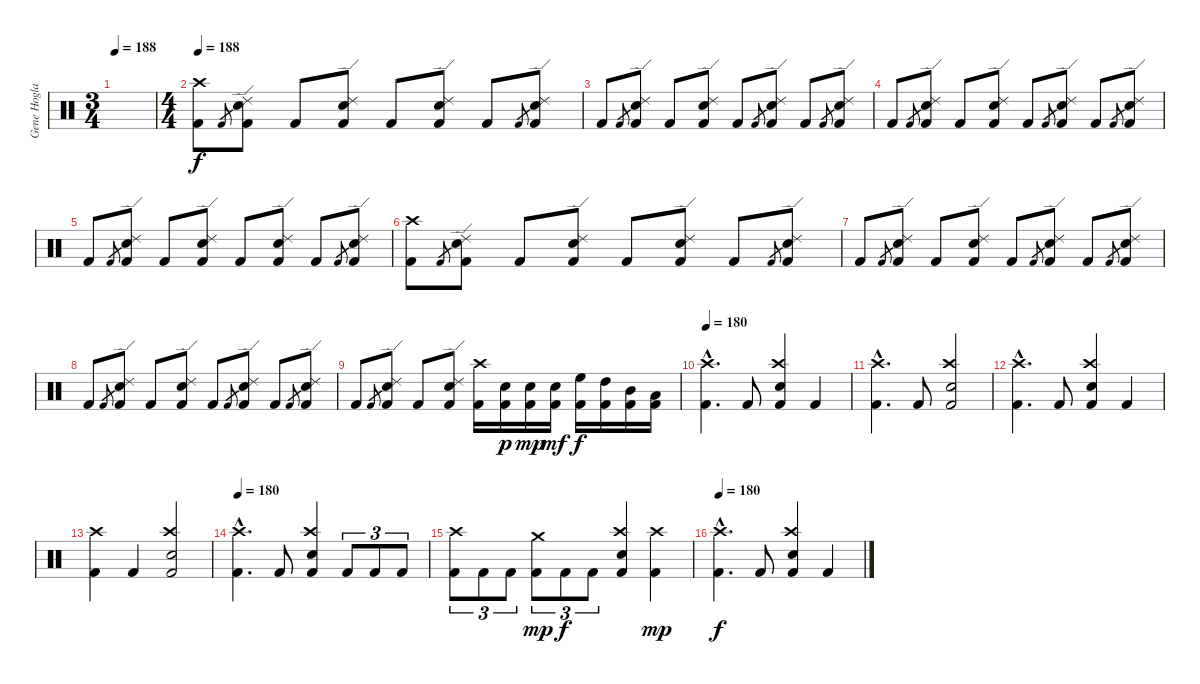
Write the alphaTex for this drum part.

\track ("Gene Hoglan" "Gene Hogla") {instrument percussion}
\staff {score}
\articulation defaults
\ts (3 4)
\tempo 188
\clef neutral
\ks c
|
\ts (4 4)
\tempo 188
("Kick (hit) 2" "Crash high (hit)").8 "Kick (hit) 2".8{gr} ("Kick (hit) 2" "Electric Snare (hit)" "Ride (edge) 2").8 "Kick (hit) 2".8 ("Kick (hit) 2" "Electric Snare (hit)" "Ride (edge) 2").8 "Kick (hit) 2".8 ("Kick (hit) 2" "Electric Snare (hit)" "Ride (edge) 2").8 "Kick (hit) 2".8 "Kick (hit) 2".8{gr} ("Kick (hit) 2" "Electric Snare (hit)" "Ride (edge) 2").8 |
"Kick (hit) 2".8 "Kick (hit) 2".8{gr} ("Kick (hit) 2" "Electric Snare (hit)" "Ride (edge) 2").8 "Kick (hit) 2".8 ("Kick (hit) 2" "Electric Snare (hit)" "Ride (edge) 2").8 "Kick (hit) 2".8 "Kick (hit) 2".8{gr} ("Kick (hit) 2" "Electric Snare (hit)" "Ride (edge) 2").8 "Kick (hit) 2".8 "Kick (hit) 2".8{gr} ("Kick (hit) 2" "Electric Snare (hit)" "Ride (edge) 2").8 |
"Kick (hit) 2".8 "Kick (hit) 2".8{gr} ("Kick (hit) 2" "Electric Snare (hit)" "Ride (edge) 2").8 "Kick (hit) 2".8 ("Kick (hit) 2" "Electric Snare (hit)" "Ride (edge) 2").8 "Kick (hit) 2".8 "Kick (hit) 2".8{gr} ("Kick (hit) 2" "Electric Snare (hit)" "Ride (edge) 2").8 "Kick (hit) 2".8 "Kick (hit) 2".8{gr} ("Kick (hit) 2" "Electric Snare (hit)" "Ride (edge) 2").8 |
"Kick (hit) 2".8 "Kick (hit) 2".8{gr} ("Kick (hit) 2" "Electric Snare (hit)" "Ride (edge) 2").8 "Kick (hit) 2".8 ("Kick (hit) 2" "Electric Snare (hit)" "Ride (edge) 2").8 "Kick (hit) 2".8 ("Kick (hit) 2" "Electric Snare (hit)" "Ride (edge) 2").8 "Kick (hit) 2".8 "Kick (hit) 2".8{gr} ("Kick (hit) 2" "Electric Snare (hit)" "Ride (edge) 2").8 |
("Kick (hit) 2" "Crash high (hit)").8 "Kick (hit) 2".8{gr} ("Kick (hit) 2" "Electric Snare (hit)" "Ride (edge) 2").8 "Kick (hit) 2".8 ("Kick (hit) 2" "Electric Snare (hit)" "Ride (edge) 2").8 "Kick (hit) 2".8 ("Kick (hit) 2" "Electric Snare (hit)" "Ride (edge) 2").8 "Kick (hit) 2".8 "Kick (hit) 2".8{gr} ("Kick (hit) 2" "Electric Snare (hit)" "Ride (edge) 2").8 |
"Kick (hit) 2".8 "Kick (hit) 2".8{gr} ("Kick (hit) 2" "Electric Snare (hit)" "Ride (edge) 2").8 "Kick (hit) 2".8 ("Kick (hit) 2" "Electric Snare (hit)" "Ride (edge) 2").8 "Kick (hit) 2".8 "Kick (hit) 2".8{gr} ("Kick (hit) 2" "Electric Snare (hit)" "Ride (edge) 2").8 "Kick (hit) 2".8 "Kick (hit) 2".8{gr} ("Kick (hit) 2" "Electric Snare (hit)" "Ride (edge) 2").8 |
"Kick (hit) 2".8 "Kick (hit) 2".8{gr} ("Kick (hit) 2" "Electric Snare (hit)" "Ride (edge) 2").8 "Kick (hit) 2".8 ("Kick (hit) 2" "Electric Snare (hit)" "Ride (edge) 2").8 "Kick (hit) 2".8 "Kick (hit) 2".8{gr} ("Kick (hit) 2" "Electric Snare (hit)" "Ride (edge) 2").8 "Kick (hit) 2".8 "Kick (hit) 2".8{gr} ("Kick (hit) 2" "Electric Snare (hit)" "Ride (edge) 2").8 |
"Kick (hit) 2".8 "Kick (hit) 2".8{gr} ("Kick (hit) 2" "Electric Snare (hit)" "Ride (edge) 2").8 "Kick (hit) 2".8 ("Kick (hit) 2" "Electric Snare (hit)" "Ride (edge) 2").8 ("Kick (hit) 2" "Crash high (hit)").16 ("Kick (hit) 2" "Electric Snare (hit)").16{dy p} ("Kick (hit) 2" "Electric Snare (hit)").16{dy mp} ("Kick (hit) 2" "Electric Snare (hit)").16{dy mf} ("Kick (hit) 2" "High Floor Tom (hit)").16{dy f} ("Kick (hit) 2" "High Tom (hit)").16 ("Kick (hit) 2" "Mid Tom (hit)").16 ("Kick (hit) 2" "Low Tom (hit)").16 |
\tempo 180
("Kick (hit) 2"{hac} "Crash high (hit)"{hac}).4{d} "Kick (hit) 2".8 ("Kick (hit) 2" "Electric Snare (hit)" "Crash high (hit)").4 "Kick (hit) 2".4 |
("Kick (hit) 2"{hac} "Crash high (hit)"{hac}).4{d} "Kick (hit) 2".8 ("Kick (hit) 2" "Electric Snare (hit)" "Crash high (hit)").2 |
("Kick (hit) 2"{hac} "Crash high (hit)"{hac}).4{d} "Kick (hit) 2".8 ("Kick (hit) 2" "Electric Snare (hit)" "Crash high (hit)").4 "Kick (hit) 2".4 |
("Kick (hit) 2" "Crash high (hit)").4 "Kick (hit) 2".4 ("Kick (hit) 2" "Electric Snare (hit)" "Crash high (hit)").2 |
\tempo 180
("Kick (hit) 2"{hac} "Crash high (hit)"{hac}).4{d} "Kick (hit) 2".8 ("Kick (hit) 2" "Electric Snare (hit)" "Crash high (hit)").4 "Kick (hit) 2".8{tu (3 2)} "Kick (hit) 2".8{tu (3 2)} "Kick (hit) 2".8{tu (3 2)} |
("Kick (hit) 2" "Crash high (hit)").8{tu (3 2)} "Kick (hit) 2".8{tu (3 2)} "Kick (hit) 2".8{tu (3 2)} ("Kick (hit) 2" "Crash medium (hit)").8{tu (3 2) dy mp} "Kick (hit) 2".8{tu (3 2) dy f} "Kick (hit) 2".8{tu (3 2)} ("Kick (hit) 2" "Electric Snare (hit)" "Crash high (hit)").4 ("Kick (hit) 2" "Crash high (hit)").4{dy mp} |
\tempo 180
("Kick (hit) 2"{hac} "Crash high (hit)"{hac}).4{d dy f} "Kick (hit) 2".8 ("Kick (hit) 2" "Electric Snare (hit)" "Crash high (hit)").4 "Kick (hit) 2".4
